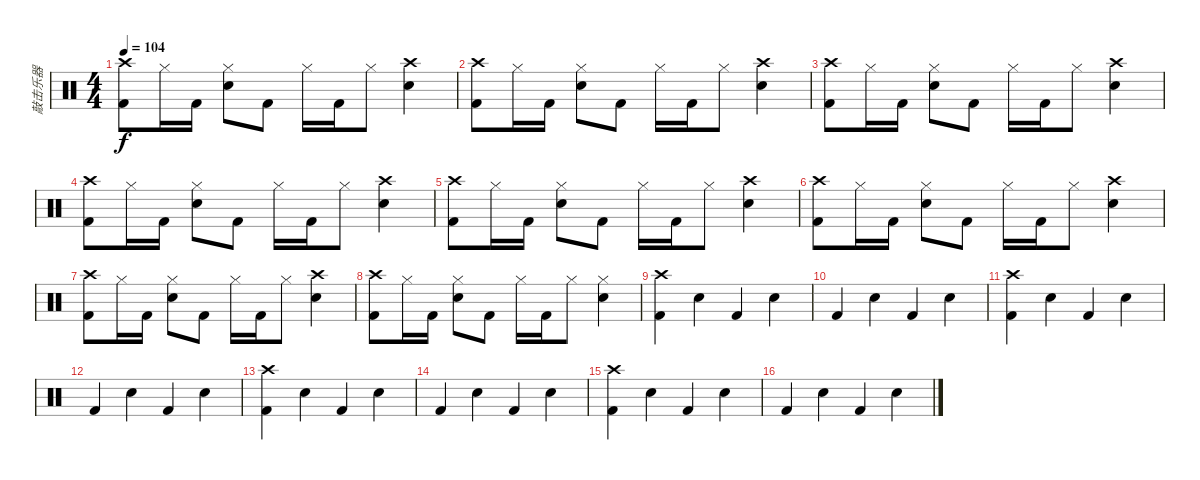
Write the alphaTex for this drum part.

\track ("敲击乐器" "敲击乐器") {instrument percussion}
\staff {score}
\articulation defaults
\ts (4 4)
\tempo 104
\clef neutral
\ks c
("Crash high (hit)" "Kick (hit) 2").8{dy f} "Hi-Hat (closed)".16 "Kick (hit) 2".16 ("Hi-Hat (closed)" "Electric Snare (hit)").8 "Kick (hit) 2".8 "Hi-Hat (closed)".16 "Kick (hit) 2".16 "Hi-Hat (closed)".8 ("Crash high (hit)" "Electric Snare (hit)").4 |
("Crash high (hit)" "Kick (hit) 2").8 "Hi-Hat (closed)".16 "Kick (hit) 2".16 ("Hi-Hat (closed)" "Electric Snare (hit)").8 "Kick (hit) 2".8 "Hi-Hat (closed)".16 "Kick (hit) 2".16 "Hi-Hat (closed)".8 ("Crash high (hit)" "Electric Snare (hit)").4 |
("Crash high (hit)" "Kick (hit) 2").8 "Hi-Hat (closed)".16 "Kick (hit) 2".16 ("Hi-Hat (closed)" "Electric Snare (hit)").8 "Kick (hit) 2".8 "Hi-Hat (closed)".16 "Kick (hit) 2".16 "Hi-Hat (closed)".8 ("Crash high (hit)" "Electric Snare (hit)").4 |
("Crash high (hit)" "Kick (hit) 2").8 "Hi-Hat (closed)".16 "Kick (hit) 2".16 ("Hi-Hat (closed)" "Electric Snare (hit)").8 "Kick (hit) 2".8 "Hi-Hat (closed)".16 "Kick (hit) 2".16 "Hi-Hat (closed)".8 ("Crash high (hit)" "Electric Snare (hit)").4 |
("Crash high (hit)" "Kick (hit) 2").8 "Hi-Hat (closed)".16 "Kick (hit) 2".16 ("Hi-Hat (closed)" "Electric Snare (hit)").8 "Kick (hit) 2".8 "Hi-Hat (closed)".16 "Kick (hit) 2".16 "Hi-Hat (closed)".8 ("Crash high (hit)" "Electric Snare (hit)").4 |
("Crash high (hit)" "Kick (hit) 2").8 "Hi-Hat (closed)".16 "Kick (hit) 2".16 ("Hi-Hat (closed)" "Electric Snare (hit)").8 "Kick (hit) 2".8 "Hi-Hat (closed)".16 "Kick (hit) 2".16 "Hi-Hat (closed)".8 ("Crash high (hit)" "Electric Snare (hit)").4 |
("Crash high (hit)" "Kick (hit) 2").8 "Hi-Hat (closed)".16 "Kick (hit) 2".16 ("Hi-Hat (closed)" "Electric Snare (hit)").8 "Kick (hit) 2".8 "Hi-Hat (closed)".16 "Kick (hit) 2".16 "Hi-Hat (closed)".8 ("Crash high (hit)" "Electric Snare (hit)").4 |
("Crash high (hit)" "Kick (hit) 2").8 "Hi-Hat (closed)".16 "Kick (hit) 2".16 ("Hi-Hat (closed)" "Electric Snare (hit)").8 "Kick (hit) 2".8 "Hi-Hat (closed)".16 "Kick (hit) 2".16 "Hi-Hat (closed)".8 ("Hi-Hat (closed)" "Electric Snare (hit)").4 |
("Crash high (hit)" "Kick (hit) 2").4 "Electric Snare (hit)".4 "Kick (hit) 2".4 "Electric Snare (hit)".4 |
"Kick (hit) 2".4 "Electric Snare (hit)".4 "Kick (hit) 2".4 "Electric Snare (hit)".4 |
("Crash high (hit)" "Kick (hit) 2").4 "Electric Snare (hit)".4 "Kick (hit) 2".4 "Electric Snare (hit)".4 |
"Kick (hit) 2".4 "Electric Snare (hit)".4 "Kick (hit) 2".4 "Electric Snare (hit)".4 |
("Crash high (hit)" "Kick (hit) 2").4 "Electric Snare (hit)".4 "Kick (hit) 2".4 "Electric Snare (hit)".4 |
"Kick (hit) 2".4 "Electric Snare (hit)".4 "Kick (hit) 2".4 "Electric Snare (hit)".4 |
("Crash high (hit)" "Kick (hit) 2").4 "Electric Snare (hit)".4 "Kick (hit) 2".4 "Electric Snare (hit)".4 |
"Kick (hit) 2".4 "Electric Snare (hit)".4 "Kick (hit) 2".4 "Electric Snare (hit)".4
